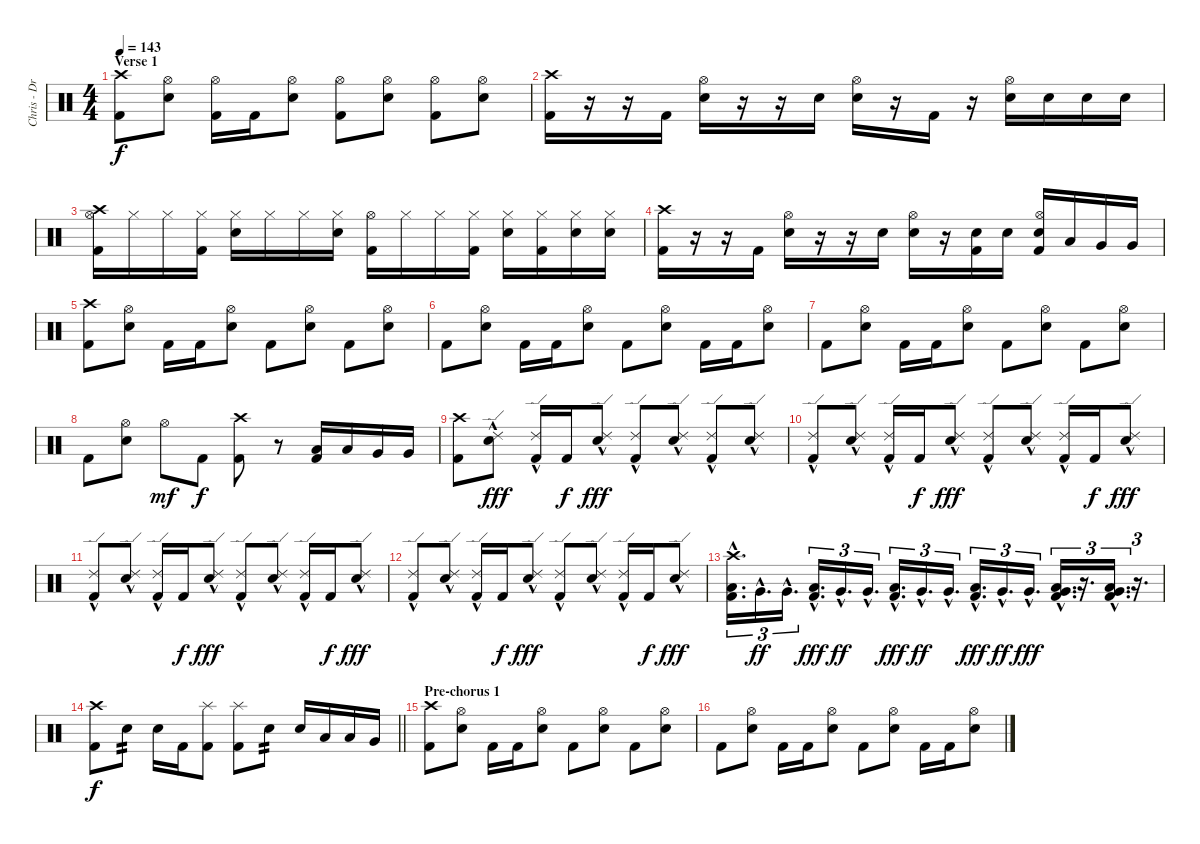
\track ("Chris - Drums" "Chris - Dr") {instrument percussion}
\staff {score}
\articulation defaults
\ts (4 4)
\section ("" "Verse 1")
\tempo 143
\clef neutral
\ks c
("Crash high (hit)" "Kick (hit) 2").8{dy f} ("Hi-Hat (open)" "Electric Snare (hit)").8 ("Hi-Hat (open)" "Kick (hit) 2").16 "Kick (hit) 2".16 ("Hi-Hat (open)" "Electric Snare (hit)").8 ("Hi-Hat (open)" "Kick (hit) 2").8 ("Hi-Hat (open)" "Electric Snare (hit)").8 ("Hi-Hat (open)" "Kick (hit) 2").8 ("Hi-Hat (open)" "Electric Snare (hit)").8 |
("Crash high (hit)" "Kick (hit) 2").16 r.16 r.16 "Kick (hit) 2".16 ("Hi-Hat (open)" "Electric Snare (hit)").16 r.16 r.16 "Electric Snare (hit)".16 ("Hi-Hat (open)" "Electric Snare (hit)").16 r.16 "Kick (hit) 2".16 r.16 ("Hi-Hat (open)" "Electric Snare (hit)").16 "Electric Snare (hit)".16 "Electric Snare (hit)".16 "Electric Snare (hit)".16 |
("Crash high (hit)" "Hi-Hat (open)" "Kick (hit) 2").16 "Hi-Hat (closed)".16 "Hi-Hat (closed)".16 ("Hi-Hat (closed)" "Kick (hit) 2").16 ("Hi-Hat (closed)" "Electric Snare (hit)").16 "Hi-Hat (closed)".16 "Hi-Hat (closed)".16 ("Hi-Hat (closed)" "Electric Snare (hit)").16 ("Hi-Hat (open)" "Kick (hit) 2").16 "Hi-Hat (closed)".16 "Hi-Hat (closed)".16 ("Hi-Hat (closed)" "Kick (hit) 2").16 ("Hi-Hat (closed)" "Electric Snare (hit)").16 ("Hi-Hat (closed)" "Kick (hit) 2").16 ("Hi-Hat (closed)" "Electric Snare (hit)").16 ("Hi-Hat (closed)" "Electric Snare (hit)").16 |
("Crash high (hit)" "Kick (hit) 2").16 r.16 r.16 "Kick (hit) 2".16 ("Hi-Hat (open)" "Electric Snare (hit)").16 r.16 r.16 "Electric Snare (hit)".16 ("Hi-Hat (open)" "Electric Snare (hit)").16 r.16 ("Electric Snare (hit)" "Kick (hit) 2").16 "Electric Snare (hit)".16 ("Hi-Hat (open)" "Electric Snare (hit)" "Kick (hit) 2").16 "Low Tom (hit)".16 "Very Low Tom (hit)".16 "Very Low Tom (hit)".16 |
("Crash high (hit)" "Kick (hit) 2").8 ("Hi-Hat (open)" "Electric Snare (hit)").8 "Kick (hit) 2".16 "Kick (hit) 2".16 ("Hi-Hat (open)" "Electric Snare (hit)").8 "Kick (hit) 2".8 ("Hi-Hat (open)" "Electric Snare (hit)").8 "Kick (hit) 2".8 ("Hi-Hat (open)" "Electric Snare (hit)").8 |
"Kick (hit) 2".8 ("Hi-Hat (open)" "Electric Snare (hit)").8 "Kick (hit) 2".16 "Kick (hit) 2".16 ("Hi-Hat (open)" "Electric Snare (hit)").8 "Kick (hit) 2".8 ("Hi-Hat (open)" "Electric Snare (hit)").8 "Kick (hit) 2".16 "Kick (hit) 2".16 ("Hi-Hat (open)" "Electric Snare (hit)").8 |
"Kick (hit) 2".8 ("Hi-Hat (open)" "Electric Snare (hit)").8 "Kick (hit) 2".16 "Kick (hit) 2".16 ("Hi-Hat (open)" "Electric Snare (hit)").8 "Kick (hit) 2".8 ("Hi-Hat (open)" "Electric Snare (hit)").8 "Kick (hit) 2".8 ("Hi-Hat (open)" "Electric Snare (hit)").8 |
"Kick (hit) 2".8 ("Hi-Hat (open)" "Electric Snare (hit)").8 "Hi-Hat (open)".8{dy mf} "Kick (hit) 2".8{dy f} ("Crash high (hit)" "Kick (hit) 2").8 r.8 ("Low Tom (hit)" "Kick (hit) 2").16 "Low Tom (hit)".16 "Very Low Tom (hit)".16 "Very Low Tom (hit)".16 |
("Crash high (hit)" "Kick (hit) 2").8 ("Ride (edge) 2"{hac} "Electric Snare (hit)").8{dy fff} ("Ride (edge) 2"{hac} "Kick (hit) 2").16 "Kick (hit) 2".16{dy f} ("Ride (edge) 2"{hac} "Electric Snare (hit)").8{dy fff} ("Ride (edge) 2"{hac} "Kick (hit) 2").8 ("Ride (edge) 2"{hac} "Electric Snare (hit)").8 ("Ride (edge) 2"{hac} "Kick (hit) 2").8 ("Ride (edge) 2"{hac} "Electric Snare (hit)").8 |
("Ride (edge) 2"{hac} "Kick (hit) 2").8 ("Ride (edge) 2"{hac} "Electric Snare (hit)").8 ("Ride (edge) 2"{hac} "Kick (hit) 2").16 "Kick (hit) 2".16{dy f} ("Ride (edge) 2"{hac} "Electric Snare (hit)").8{dy fff} ("Ride (edge) 2"{hac} "Kick (hit) 2").8 ("Ride (edge) 2"{hac} "Electric Snare (hit)").8 ("Ride (edge) 2"{hac} "Kick (hit) 2").16 "Kick (hit) 2".16{dy f} ("Ride (edge) 2"{hac} "Electric Snare (hit)").8{dy fff} |
("Ride (edge) 2"{hac} "Kick (hit) 2").8 ("Ride (edge) 2"{hac} "Electric Snare (hit)").8 ("Ride (edge) 2"{hac} "Kick (hit) 2").16 "Kick (hit) 2".16{dy f} ("Ride (edge) 2"{hac} "Electric Snare (hit)").8{dy fff} ("Ride (edge) 2"{hac} "Kick (hit) 2").8 ("Ride (edge) 2"{hac} "Electric Snare (hit)").8 ("Ride (edge) 2"{hac} "Kick (hit) 2").16 "Kick (hit) 2".16{dy f} ("Ride (edge) 2"{hac} "Electric Snare (hit)").8{dy fff} |
("Ride (edge) 2"{hac} "Kick (hit) 2").8 ("Ride (edge) 2"{hac} "Electric Snare (hit)").8 ("Ride (edge) 2"{hac} "Kick (hit) 2").16 "Kick (hit) 2".16{dy f} ("Ride (edge) 2"{hac} "Electric Snare (hit)").8{dy fff} ("Ride (edge) 2"{hac} "Kick (hit) 2").8 ("Ride (edge) 2"{hac} "Electric Snare (hit)").8 ("Ride (edge) 2"{hac} "Kick (hit) 2").16 "Kick (hit) 2".16{dy f} ("Ride (edge) 2"{hac} "Electric Snare (hit)").8{dy fff} |
("Crash high (hit)"{hac} "Low Tom (hit)"{hac} "Kick (hit) 2"{hac}).16{d tu (3 2)} "Very Low Tom (hit)"{hac}.16{d tu (3 2) dy ff} "Very Low Tom (hit)"{hac}.16{d tu (3 2)} ("Low Tom (hit)"{hac} "Kick (hit) 2"{hac}).16{d tu (3 2) dy fff} "Very Low Tom (hit)"{hac}.16{d tu (3 2) dy ff} "Very Low Tom (hit)"{hac}.16{d tu (3 2)} ("Low Tom (hit)"{hac} "Kick (hit) 2"{hac}).16{d tu (3 2) dy fff} "Very Low Tom (hit)"{hac}.16{d tu (3 2) dy ff} "Very Low Tom (hit)"{hac}.16{d tu (3 2)} ("Low Tom (hit)"{hac} "Kick (hit) 2"{hac}).16{d tu (3 2) dy fff} "Very Low Tom (hit)"{hac}.16{d tu (3 2) dy ff} "Very Low Tom (hit)"{hac}.16{d tu (3 2) dy fff} ("Very Low Tom (hit)"{hac} "Low Tom (hit)"{hac} "Kick (hit) 2"{hac}).16{d tu (3 2)} r.16{d tu (3 2)} ("Very Low Tom (hit)"{hac} "Low Tom (hit)"{hac} "Kick (hit) 2"{hac}).16{d tu (3 2)} r.16{d tu (3 2)} |
\barLineRight lightlight
("Crash high (hit)" "Kick (hit) 2").8{dy f} "Electric Snare (hit)".8{tp 2} "Electric Snare (hit)".16 "Kick (hit) 2".16 ("Splash (hit)" "Kick (hit) 2").8 ("Splash (hit)" "Kick (hit) 2").8 "Electric Snare (hit)".8{tp 2} "Electric Snare (hit)".16 "Low Tom (hit)".16 "Low Tom (hit)".16 "Very Low Tom (hit)".16 |
\section ("" "Pre-chorus 1")
("Crash high (hit)" "Kick (hit) 2").8 ("Hi-Hat (open)" "Electric Snare (hit)").8 "Kick (hit) 2".16 "Kick (hit) 2".16 ("Hi-Hat (open)" "Electric Snare (hit)").8 "Kick (hit) 2".8 ("Hi-Hat (open)" "Electric Snare (hit)").8 "Kick (hit) 2".8 ("Hi-Hat (open)" "Electric Snare (hit)").8 |
"Kick (hit) 2".8 ("Hi-Hat (open)" "Electric Snare (hit)").8 "Kick (hit) 2".16 "Kick (hit) 2".16 ("Hi-Hat (open)" "Electric Snare (hit)").8 "Kick (hit) 2".8 ("Hi-Hat (open)" "Electric Snare (hit)").8 "Kick (hit) 2".16 "Kick (hit) 2".16 ("Hi-Hat (open)" "Electric Snare (hit)").8
